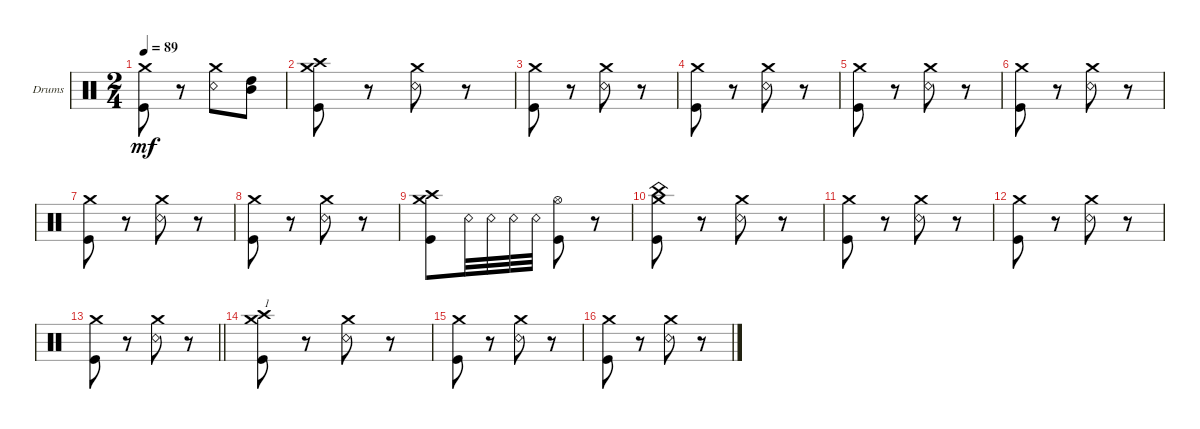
\bracketExtendMode groupsimilarinstruments
\firstSystemTrackNameOrientation horizontal
\otherSystemsTrackNameOrientation horizontal
\track ("Ryo" "Drums") {instrument percussion}
\staff {score}
\articulation defaults
\ts (2 4)
\tempo 89
\clef neutral
\ks c
("Crash medium (hit)" "Kick (hit)").8{dy mf} r.8 ("Crash medium (hit)" "Snare (rim shot)").8 ("Mid Tom (hit)" "High Tom (hit)").8 |
("Kick (hit)" "Crash medium (hit)" "Crash high (hit)").8 r.8 ("Crash medium (hit)" "Snare (rim shot)").8 r.8 |
("Crash medium (hit)" "Kick (hit)").8 r.8 ("Crash medium (hit)" "Snare (rim shot)").8 r.8 |
("Kick (hit)" "Crash medium (hit)").8 r.8 ("Crash medium (hit)" "Snare (rim shot)").8 r.8 |
("Crash medium (hit)" "Kick (hit)").8 r.8 ("Crash medium (hit)" "Snare (rim shot)").8 r.8 |
("Kick (hit)" "Crash medium (hit)").8 r.8 ("Crash medium (hit)" "Snare (rim shot)").8 r.8 |
("Crash medium (hit)" "Kick (hit)").8 r.8 ("Crash medium (hit)" "Snare (rim shot)").8 r.8 |
("Kick (hit)" "Crash medium (hit)").8 r.8 ("Crash medium (hit)" "Snare (rim shot)").8 r.8 |
("Kick (hit)" "Crash medium (hit)" "Crash high (hit)").8 "Snare (rim shot)".32 "Snare (rim shot)".32 "Snare (rim shot)".32 "Snare (rim shot)".32 ("Kick (hit)" "Hi-Hat (open)").8 r.8 |
("Crash medium (hit)" "Kick (hit)" "China (hit)").8 r.8 ("Crash medium (hit)" "Snare (rim shot)").8 r.8 |
("Crash medium (hit)" "Kick (hit)").8 r.8 ("Crash medium (hit)" "Snare (rim shot)").8 r.8 |
("Kick (hit)" "Crash medium (hit)").8 r.8 ("Crash medium (hit)" "Snare (rim shot)").8 r.8 |
\barLineRight lightlight
("Crash medium (hit)" "Kick (hit)").8 r.8 ("Crash medium (hit)" "Snare (rim shot)").8 r.8 |
("Kick (hit)" "Crash medium (hit)" "Crash high (hit)").8{txt "1"} r.8 ("Crash medium (hit)" "Snare (rim shot)").8 r.8 |
("Crash medium (hit)" "Kick (hit)").8 r.8 ("Crash medium (hit)" "Snare (rim shot)").8 r.8 |
("Kick (hit)" "Crash medium (hit)").8 r.8 ("Crash medium (hit)" "Snare (rim shot)").8 r.8
